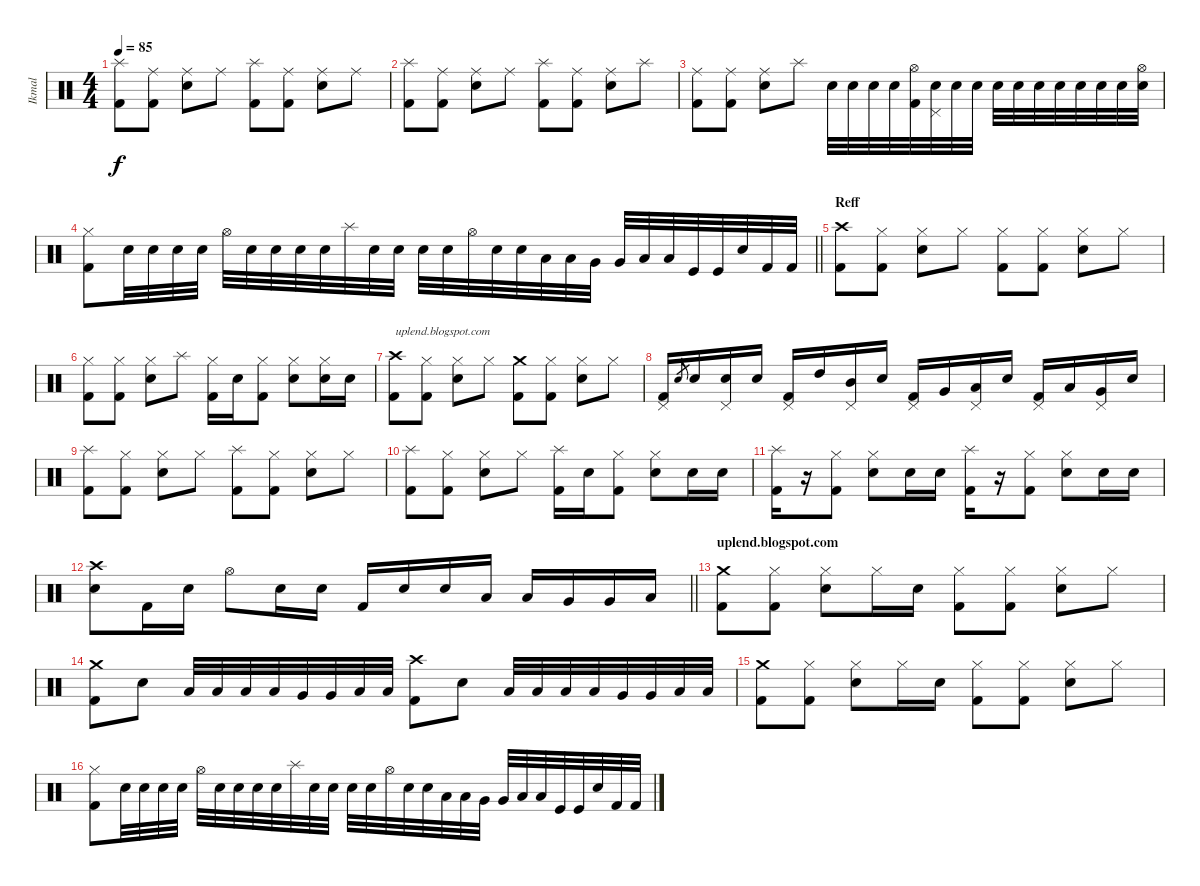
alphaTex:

\track ("Ikmal" "Ikmal") {instrument percussion}
\staff {score}
\articulation defaults
\ts (4 4)
\tempo 85
\clef neutral
\ks c
("Splash (hit)" "Kick (hit) 2").8{dy f} ("Ride (middle)" "Kick (hit) 2").8 ("Ride (middle)" "Electric Snare (hit)").8 "Ride (middle)".8 ("Splash (hit)" "Kick (hit) 2").8 ("Ride (middle)" "Kick (hit) 2").8 ("Ride (middle)" "Electric Snare (hit)").8 "Ride (middle)".8 |
("Splash (hit)" "Kick (hit) 2").8 ("Ride (middle)" "Kick (hit) 2").8 ("Ride (middle)" "Electric Snare (hit)").8 "Ride (middle)".8 ("Splash (hit)" "Kick (hit) 2").8 ("Ride (middle)" "Kick (hit) 2").8 ("Ride (middle)" "Electric Snare (hit)").8 "Splash (hit)".8 |
("Ride (middle)" "Kick (hit) 2").8 ("Ride (middle)" "Kick (hit) 2").8 ("Ride (middle)" "Electric Snare (hit)").8 "Splash (hit)".8 "Electric Snare (hit)".32 "Electric Snare (hit)".32 "Electric Snare (hit)".32 "Electric Snare (hit)".32 ("Hi-Hat (open)" "Kick (hit) 2").32 ("Pedal Hi-Hat (hit)" "Electric Snare (hit)").32 "Electric Snare (hit)".32 "Electric Snare (hit)".32 "Electric Snare (hit)".32 "Electric Snare (hit)".32 "Electric Snare (hit)".32 "Electric Snare (hit)".32 "Electric Snare (hit)".32 "Electric Snare (hit)".32 "Electric Snare (hit)".32 ("Hi-Hat (open)" "Electric Snare (hit)").32 |
\barLineRight lightlight
("Hi-Hat (closed)" "Kick (hit) 2").8 "Electric Snare (hit)".32 "Electric Snare (hit)".32 "Electric Snare (hit)".32 "Electric Snare (hit)".32 "Hi-Hat (open)".32 "Electric Snare (hit)".32 "Electric Snare (hit)".32 "Electric Snare (hit)".32 "Electric Snare (hit)".32 "Splash (hit)".32 "Electric Snare (hit)".32 "Electric Snare (hit)".32 "Electric Snare (hit)".32 "Electric Snare (hit)".32 "Hi-Hat (open)".32 "Electric Snare (hit)".32 "Electric Snare (hit)".32 "Low Tom (hit)".32 "Low Tom (hit)".32 "Very Low Tom (hit)".32 "Very Low Tom (hit)".32 "Low Floor Tom (hit)".32 "Low Floor Tom (hit)".32 "Kick (hit)".32 "Kick (hit)".32 "Electric Snare (hit)".32 "Kick (hit) 2".32 "Kick (hit) 2".32 |
\section ("" "Reff")
("Crash high (hit)" "Kick (hit) 2").8 ("Hi-Hat (closed)" "Kick (hit) 2").8 ("Hi-Hat (closed)" "Electric Snare (hit)").8 "Hi-Hat (closed)".8 ("Hi-Hat (closed)" "Kick (hit) 2").8 ("Hi-Hat (closed)" "Kick (hit) 2").8 ("Hi-Hat (closed)" "Electric Snare (hit)").8 "Hi-Hat (closed)".8 |
("Hi-Hat (closed)" "Kick (hit) 2").8 ("Hi-Hat (closed)" "Kick (hit) 2").8 ("Hi-Hat (closed)" "Electric Snare (hit)").8 "Splash (hit)".8 ("Hi-Hat (closed)" "Kick (hit) 2").16 "Electric Snare (hit)".16 ("Hi-Hat (closed)" "Kick (hit) 2").8 ("Hi-Hat (closed)" "Electric Snare (hit)").8 ("Hi-Hat (closed)" "Electric Snare (hit)").16 "Electric Snare (hit)".16 |
("Crash high (hit)" "Kick (hit) 2").8{txt "uplend.blogspot.com"} ("Hi-Hat (closed)" "Kick (hit) 2").8 ("Hi-Hat (closed)" "Electric Snare (hit)").8 "Hi-Hat (closed)".8 ("Crash medium (hit)" "Kick (hit) 2").8 ("Hi-Hat (closed)" "Kick (hit) 2").8 ("Hi-Hat (closed)" "Electric Snare (hit)").8 "Hi-Hat (closed)".8 |
("Pedal Hi-Hat (hit)" "Kick (hit) 2").16 "Electric Snare (hit)".8{gr} "Electric Snare (hit)".16 ("Pedal Hi-Hat (hit)" "Electric Snare (hit)").16 "Electric Snare (hit)".16 ("Pedal Hi-Hat (hit)" "Kick (hit) 2").16 "High Tom (hit)".16 ("Pedal Hi-Hat (hit)" "Mid Tom (hit)").16 "Electric Snare (hit)".16 ("Pedal Hi-Hat (hit)" "Kick (hit) 2").16 "Very Low Tom (hit)".16 ("Pedal Hi-Hat (hit)" "Low Tom (hit)").16 "Electric Snare (hit)".16 ("Pedal Hi-Hat (hit)" "Kick (hit) 2").16 "Low Floor Tom (hit)".16 ("Pedal Hi-Hat (hit)" "Very Low Tom (hit)").16 "Electric Snare (hit)".16 |
("Splash (hit)" "Kick (hit) 2").8 ("Hi-Hat (closed)" "Kick (hit) 2").8 ("Hi-Hat (closed)" "Electric Snare (hit)").8 "Hi-Hat (closed)".8 ("Splash (hit)" "Kick (hit) 2").8 ("Hi-Hat (closed)" "Kick (hit) 2").8 ("Hi-Hat (closed)" "Electric Snare (hit)").8 "Hi-Hat (closed)".8 |
("Splash (hit)" "Kick (hit) 2").8 ("Hi-Hat (closed)" "Kick (hit) 2").8 ("Hi-Hat (closed)" "Electric Snare (hit)").8 "Hi-Hat (closed)".8 ("Splash (hit)" "Kick (hit) 2").16 "Electric Snare (hit)".16 ("Hi-Hat (closed)" "Kick (hit) 2").8 ("Hi-Hat (closed)" "Electric Snare (hit)").8 "Electric Snare (hit)".16 "Electric Snare (hit)".16 |
("Splash (hit)" "Kick (hit) 2").16 r.16 ("Hi-Hat (closed)" "Kick (hit) 2").8 ("Hi-Hat (closed)" "Electric Snare (hit)").8 "Electric Snare (hit)".16 "Electric Snare (hit)".16 ("Splash (hit)" "Kick (hit) 2").16 r.16 ("Hi-Hat (closed)" "Kick (hit) 2").8 ("Hi-Hat (closed)" "Electric Snare (hit)").8 "Electric Snare (hit)".16 "Electric Snare (hit)".16 |
\barLineRight lightlight
("Crash high (hit)" "Electric Snare (hit)").8 "Kick (hit) 2".16 "Electric Snare (hit)".16 "Hi-Hat (open)".8 "Electric Snare (hit)".16 "Electric Snare (hit)".16 "Kick (hit) 2".16 "Electric Snare (hit)".16 "Electric Snare (hit)".16 "Low Tom (hit)".16 "Low Tom (hit)".16 "Very Low Tom (hit)".16 "Very Low Tom (hit)".16 "Low Floor Tom (hit)".16 |
\section ("" "uplend.blogspot.com")
("Crash medium (hit)" "Kick (hit) 2").8 ("Hi-Hat (closed)" "Kick (hit) 2").8 ("Hi-Hat (closed)" "Electric Snare (hit)").8 "Hi-Hat (closed)".16 "Electric Snare (hit)".16 ("Hi-Hat (closed)" "Kick (hit) 2").8 ("Hi-Hat (closed)" "Kick (hit) 2").8 ("Hi-Hat (closed)" "Electric Snare (hit)").8 "Hi-Hat (closed)".8 |
("Crash medium (hit)" "Kick (hit) 2").8 "Electric Snare (hit)".8 "Low Tom (hit)".32 "Low Tom (hit)".32 "Low Tom (hit)".32 "Low Tom (hit)".32 "Very Low Tom (hit)".32 "Very Low Tom (hit)".32 "Low Floor Tom (hit)".32 "Low Floor Tom (hit)".32 ("Crash high (hit)" "Kick (hit) 2").8 "Electric Snare (hit)".8 "Low Tom (hit)".32 "Low Tom (hit)".32 "Low Tom (hit)".32 "Low Tom (hit)".32 "Very Low Tom (hit)".32 "Very Low Tom (hit)".32 "Low Floor Tom (hit)".32 "Low Floor Tom (hit)".32 |
("Crash medium (hit)" "Kick (hit) 2").8 ("Hi-Hat (closed)" "Kick (hit) 2").8 ("Hi-Hat (closed)" "Electric Snare (hit)").8 "Hi-Hat (closed)".16 "Electric Snare (hit)".16 ("Hi-Hat (closed)" "Kick (hit) 2").8 ("Hi-Hat (closed)" "Kick (hit) 2").8 ("Hi-Hat (closed)" "Electric Snare (hit)").8 "Hi-Hat (closed)".8 |
("Hi-Hat (closed)" "Kick (hit) 2").8 "Electric Snare (hit)".32 "Electric Snare (hit)".32 "Electric Snare (hit)".32 "Electric Snare (hit)".32 "Hi-Hat (open)".32 "Electric Snare (hit)".32 "Electric Snare (hit)".32 "Electric Snare (hit)".32 "Electric Snare (hit)".32 "Splash (hit)".32 "Electric Snare (hit)".32 "Electric Snare (hit)".32 "Electric Snare (hit)".32 "Electric Snare (hit)".32 "Hi-Hat (open)".32 "Electric Snare (hit)".32 "Electric Snare (hit)".32 "Low Tom (hit)".32 "Low Tom (hit)".32 "Very Low Tom (hit)".32 "Very Low Tom (hit)".32 "Low Floor Tom (hit)".32 "Low Floor Tom (hit)".32 "Kick (hit)".32 "Kick (hit)".32 "Electric Snare (hit)".32 "Kick (hit) 2".32 "Kick (hit) 2".32
